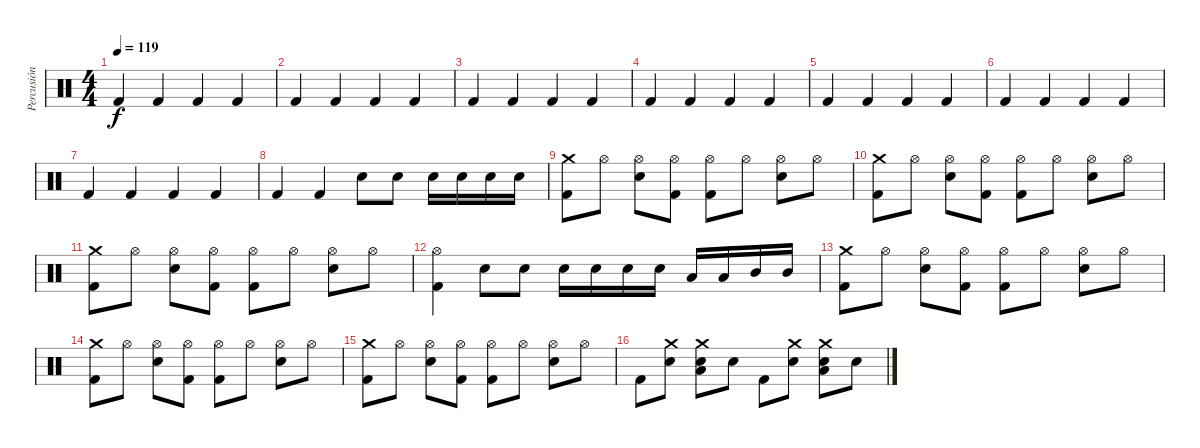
\track ("Percusión" "Percusión") {instrument percussion}
\staff {score}
\articulation defaults
\ts (4 4)
\tempo 119
\clef neutral
\ks c "Kick (hit) 2".4{dy f} "Kick (hit) 2".4 "Kick (hit) 2".4 "Kick (hit) 2".4
|
"Kick (hit) 2".4 "Kick (hit) 2".4 "Kick (hit) 2".4 "Kick (hit) 2".4 |
"Kick (hit) 2".4 "Kick (hit) 2".4 "Kick (hit) 2".4 "Kick (hit) 2".4 |
"Kick (hit) 2".4 "Kick (hit) 2".4 "Kick (hit) 2".4 "Kick (hit) 2".4 |
"Kick (hit) 2".4 "Kick (hit) 2".4 "Kick (hit) 2".4 "Kick (hit) 2".4 |
"Kick (hit) 2".4 "Kick (hit) 2".4 "Kick (hit) 2".4 "Kick (hit) 2".4 |
"Kick (hit) 2".4 "Kick (hit) 2".4 "Kick (hit) 2".4 "Kick (hit) 2".4 |
"Kick (hit) 2".4 "Kick (hit) 2".4 "Snare (hit) 2".8 "Snare (hit) 2".8 "Snare (hit) 2".16 "Snare (hit) 2".16 "Snare (hit) 2".16 "Snare (hit) 2".16 |
("Crash medium (hit)" "Kick (hit) 2").8 "Hi-Hat (open)".8 ("Hi-Hat (open)" "Electric Snare (hit)").8 ("Hi-Hat (open)" "Kick (hit) 2").8 ("Hi-Hat (open)" "Kick (hit) 2").8 "Hi-Hat (open)".8 ("Hi-Hat (open)" "Electric Snare (hit)").8 "Hi-Hat (open)".8 |
("Crash medium (hit)" "Kick (hit) 2").8 "Hi-Hat (open)".8 ("Hi-Hat (open)" "Electric Snare (hit)").8 ("Hi-Hat (open)" "Kick (hit) 2").8 ("Hi-Hat (open)" "Kick (hit) 2").8 "Hi-Hat (open)".8 ("Hi-Hat (open)" "Electric Snare (hit)").8 "Hi-Hat (open)".8 |
("Crash medium (hit)" "Kick (hit) 2").8 "Hi-Hat (open)".8 ("Hi-Hat (open)" "Electric Snare (hit)").8 ("Hi-Hat (open)" "Kick (hit) 2").8 ("Hi-Hat (open)" "Kick (hit) 2").8 "Hi-Hat (open)".8 ("Hi-Hat (open)" "Electric Snare (hit)").8 "Hi-Hat (open)".8 |
("Hi-Hat (open)" "Kick (hit) 2").4 "Electric Snare (hit)".8 "Electric Snare (hit)".8 "Electric Snare (hit)".16 "Electric Snare (hit)".16 "Electric Snare (hit)".16 "Electric Snare (hit)".16 "Low Tom (hit)".16 "Low Tom (hit)".16 "Mid Tom (hit)".16 "Mid Tom (hit)".16 |
("Crash medium (hit)" "Kick (hit) 2").8 "Hi-Hat (open)".8 ("Hi-Hat (open)" "Electric Snare (hit)").8 ("Hi-Hat (open)" "Kick (hit) 2").8 ("Hi-Hat (open)" "Kick (hit) 2").8 "Hi-Hat (open)".8 ("Hi-Hat (open)" "Electric Snare (hit)").8 "Hi-Hat (open)".8 |
("Crash medium (hit)" "Kick (hit) 2").8 "Hi-Hat (open)".8 ("Hi-Hat (open)" "Electric Snare (hit)").8 ("Hi-Hat (open)" "Kick (hit) 2").8 ("Hi-Hat (open)" "Kick (hit) 2").8 "Hi-Hat (open)".8 ("Hi-Hat (open)" "Electric Snare (hit)").8 "Hi-Hat (open)".8 |
("Crash medium (hit)" "Kick (hit) 2").8 "Hi-Hat (open)".8 ("Hi-Hat (open)" "Electric Snare (hit)").8 ("Hi-Hat (open)" "Kick (hit) 2").8 ("Hi-Hat (open)" "Kick (hit) 2").8 "Hi-Hat (open)".8 ("Hi-Hat (open)" "Electric Snare (hit)").8 "Hi-Hat (open)".8 |
"Kick (hit) 2".8 ("Crash medium (hit)" "Electric Snare (hit)").8 ("Crash medium (hit)" "Low Tom (hit)" "Electric Snare (hit)").8 "Electric Snare (hit)".8 "Kick (hit) 2".8 ("Crash medium (hit)" "Electric Snare (hit)").8 ("Crash medium (hit)" "Low Tom (hit)" "Electric Snare (hit)").8 "Electric Snare (hit)".8
